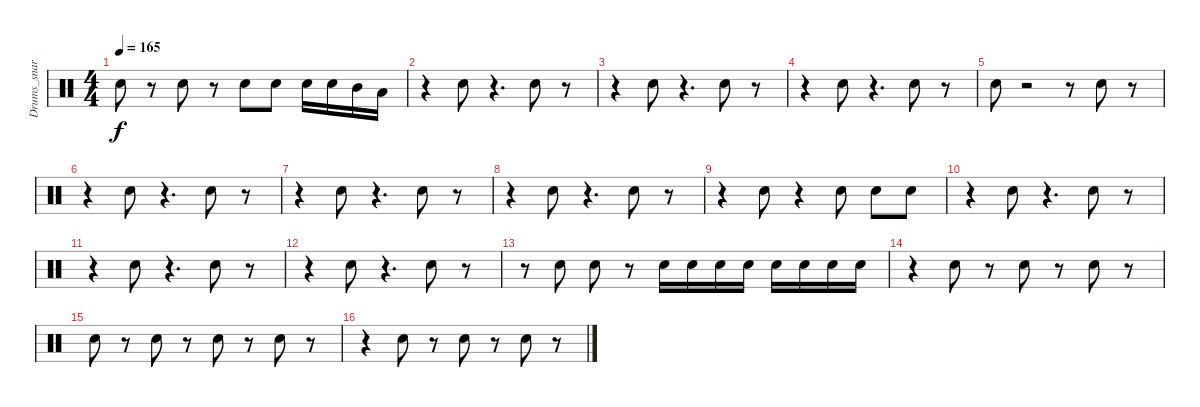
\track ("Drums_snare&tom" "Drums_snar") {instrument percussion}
\staff {score}
\articulation defaults
\ts (4 4)
\tempo 165
\clef neutral
\ks c "Snare (hit) 2".8{dy f}
r.8 "Snare (hit) 2".8 r.8 "Snare (hit) 2".8 "Snare (hit) 2".8 "Snare (hit) 2".16 "Snare (hit) 2".16 "Mid Tom (hit)".16 "Low Tom (hit)".16 |
r.4 "Snare (hit) 2".8 r.4{d} "Snare (hit) 2".8 r.8 |
r.4 "Snare (hit) 2".8 r.4{d} "Snare (hit) 2".8 r.8 |
r.4 "Snare (hit) 2".8 r.4{d} "Snare (hit) 2".8 r.8 |
"Snare (hit) 2".8 r.2 r.8 "Snare (hit) 2".8 r.8 |
r.4 "Snare (hit) 2".8 r.4{d} "Snare (hit) 2".8 r.8 |
r.4 "Snare (hit) 2".8 r.4{d} "Snare (hit) 2".8 r.8 |
r.4 "Snare (hit) 2".8 r.4{d} "Snare (hit) 2".8 r.8 |
r.4 "Snare (hit) 2".8 r.4 "Snare (hit) 2".8 "Snare (hit) 2".8 "Snare (hit) 2".8 |
r.4 "Snare (hit) 2".8 r.4{d} "Snare (hit) 2".8 r.8 |
r.4 "Snare (hit) 2".8 r.4{d} "Snare (hit) 2".8 r.8 |
r.4 "Snare (hit) 2".8 r.4{d} "Snare (hit) 2".8 r.8 |
r.8 "Snare (hit) 2".8 "Snare (hit) 2".8 r.8 "Snare (hit) 2".16 "Snare (hit) 2".16 "Snare (hit) 2".16 "Snare (hit) 2".16 "Snare (hit) 2".16 "Snare (hit) 2".16 "Snare (hit) 2".16 "Snare (hit) 2".16 |
r.4 "Snare (hit) 2".8 r.8 "Snare (hit) 2".8 r.8 "Snare (hit) 2".8 r.8 |
"Snare (hit) 2".8 r.8 "Snare (hit) 2".8 r.8 "Snare (hit) 2".8 r.8 "Snare (hit) 2".8 r.8 |
r.4 "Snare (hit) 2".8 r.8 "Snare (hit) 2".8 r.8 "Snare (hit) 2".8 r.8
